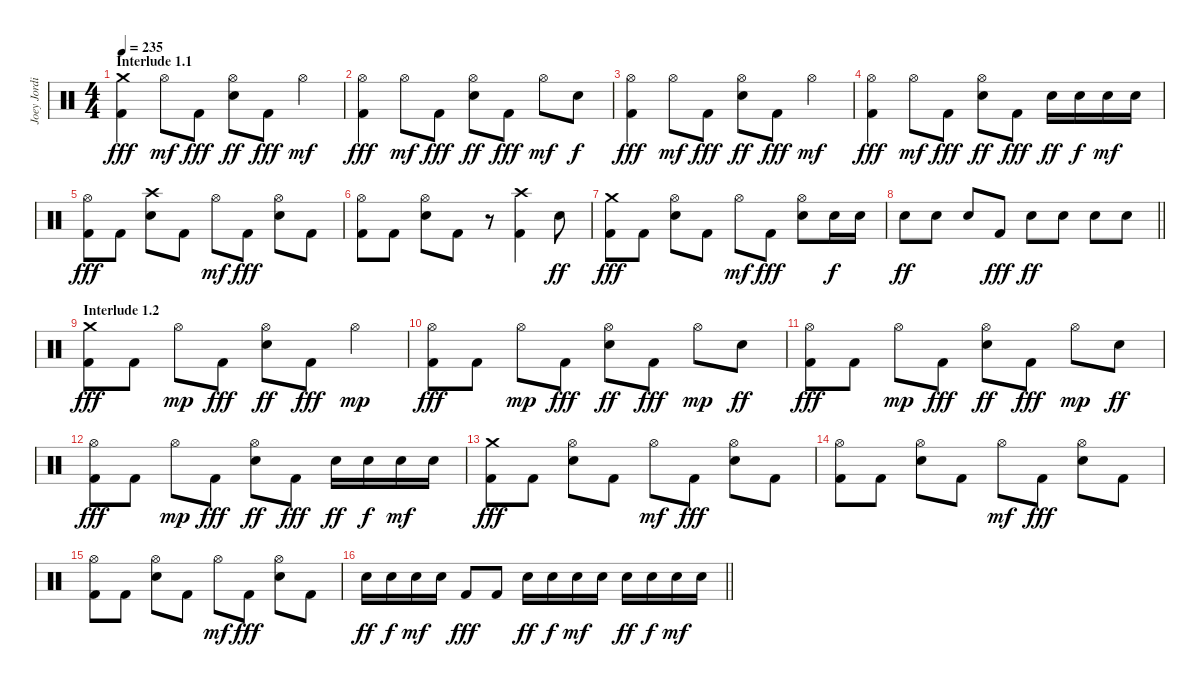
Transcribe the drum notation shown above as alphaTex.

\track ("Joey Jordison" "Joey Jordi") {instrument percussion}
\staff {score}
\articulation defaults
\ts (4 4)
\section ("" "Interlude 1.1")
\tempo 235
\clef neutral
\ks c
("Crash medium (hit)" "Kick (hit) 2").4{dy fff} "Hi-Hat (open)".8{dy mf} "Kick (hit) 2".8{dy fff} ("Hi-Hat (open)" "Electric Snare (hit)").8{dy ff} "Kick (hit) 2".8{dy fff} "Hi-Hat (open)".4{dy mf} |
("Hi-Hat (open)" "Kick (hit) 2").4{dy fff} "Hi-Hat (open)".8{dy mf} "Kick (hit) 2".8{dy fff} ("Hi-Hat (open)" "Electric Snare (hit)").8{dy ff} "Kick (hit) 2".8{dy fff} "Hi-Hat (open)".8{dy mf} "Electric Snare (hit)".8{dy f} |
("Hi-Hat (open)" "Kick (hit) 2").4{dy fff} "Hi-Hat (open)".8{dy mf} "Kick (hit) 2".8{dy fff} ("Hi-Hat (open)" "Electric Snare (hit)").8{dy ff} "Kick (hit) 2".8{dy fff} "Hi-Hat (open)".4{dy mf} |
("Hi-Hat (open)" "Kick (hit) 2").4{dy fff} "Hi-Hat (open)".8{dy mf} "Kick (hit) 2".8{dy fff} ("Hi-Hat (open)" "Electric Snare (hit)").8{dy ff} "Kick (hit) 2".8{dy fff} "Electric Snare (hit)".16{dy ff} "Electric Snare (hit)".16{dy f} "Electric Snare (hit)".16{dy mf} "Electric Snare (hit)".16 |
("Hi-Hat (open)" "Kick (hit) 2").8{dy fff} "Kick (hit) 2".8 ("Crash high (hit)" "Electric Snare (hit)").8 "Kick (hit) 2".8 "Hi-Hat (open)".8{dy mf} "Kick (hit) 2".8{dy fff} ("Hi-Hat (open)" "Electric Snare (hit)").8 "Kick (hit) 2".8 |
("Hi-Hat (open)" "Kick (hit) 2").8 "Kick (hit) 2".8 ("Hi-Hat (open)" "Electric Snare (hit)").8 "Kick (hit) 2".8 r.8 ("Crash high (hit)" "Kick (hit) 2").4 "Electric Snare (hit)".8{dy ff} |
("Crash medium (hit)" "Kick (hit) 2").8{dy fff} "Kick (hit) 2".8 ("Hi-Hat (open)" "Electric Snare (hit)").8 "Kick (hit) 2".8 "Hi-Hat (open)".8{dy mf} "Kick (hit) 2".8{dy fff} ("Hi-Hat (open)" "Electric Snare (hit)").8 "Electric Snare (hit)".16{dy f} "Electric Snare (hit)".16 |
\barLineRight lightlight "Electric Snare (hit)".8{dy ff} "Electric Snare (hit)".8 "Electric Snare (hit)".8 "Kick (hit) 2".8{dy fff} "Electric Snare (hit)".8{dy ff} "Electric Snare (hit)".8 "Electric Snare (hit)".8 "Electric Snare (hit)".8
|
\section ("" "Interlude 1.2")
("Crash medium (hit)" "Kick (hit) 2").8{dy fff} "Kick (hit) 2".8 "Hi-Hat (open)".8{dy mp} "Kick (hit) 2".8{dy fff} ("Hi-Hat (open)" "Electric Snare (hit)").8{dy ff} "Kick (hit) 2".8{dy fff} "Hi-Hat (open)".4{dy mp} |
("Hi-Hat (open)" "Kick (hit) 2").8{dy fff} "Kick (hit) 2".8 "Hi-Hat (open)".8{dy mp} "Kick (hit) 2".8{dy fff} ("Hi-Hat (open)" "Electric Snare (hit)").8{dy ff} "Kick (hit) 2".8{dy fff} "Hi-Hat (open)".8{dy mp} "Electric Snare (hit)".8{dy ff} |
("Hi-Hat (open)" "Kick (hit) 2").8{dy fff} "Kick (hit) 2".8 "Hi-Hat (open)".8{dy mp} "Kick (hit) 2".8{dy fff} ("Hi-Hat (open)" "Electric Snare (hit)").8{dy ff} "Kick (hit) 2".8{dy fff} "Hi-Hat (open)".8{dy mp} "Electric Snare (hit)".8{dy ff} |
("Hi-Hat (open)" "Kick (hit) 2").8{dy fff} "Kick (hit) 2".8 "Hi-Hat (open)".8{dy mp} "Kick (hit) 2".8{dy fff} ("Hi-Hat (open)" "Electric Snare (hit)").8{dy ff} "Kick (hit) 2".8{dy fff} "Electric Snare (hit)".16{dy ff} "Electric Snare (hit)".16{dy f} "Electric Snare (hit)".16{dy mf} "Electric Snare (hit)".16 |
("Crash medium (hit)" "Kick (hit) 2").8{dy fff} "Kick (hit) 2".8 ("Hi-Hat (open)" "Electric Snare (hit)").8 "Kick (hit) 2".8 "Hi-Hat (open)".8{dy mf} "Kick (hit) 2".8{dy fff} ("Hi-Hat (open)" "Electric Snare (hit)").8 "Kick (hit) 2".8 |
("Hi-Hat (open)" "Kick (hit) 2").8 "Kick (hit) 2".8 ("Hi-Hat (open)" "Electric Snare (hit)").8 "Kick (hit) 2".8 "Hi-Hat (open)".8{dy mf} "Kick (hit) 2".8{dy fff} ("Hi-Hat (open)" "Electric Snare (hit)").8 "Kick (hit) 2".8 |
("Hi-Hat (open)" "Kick (hit) 2").8 "Kick (hit) 2".8 ("Hi-Hat (open)" "Electric Snare (hit)").8 "Kick (hit) 2".8 "Hi-Hat (open)".8{dy mf} "Kick (hit) 2".8{dy fff} ("Hi-Hat (open)" "Electric Snare (hit)").8 "Kick (hit) 2".8 |
\barLineRight lightlight "Electric Snare (hit)".16{dy ff} "Electric Snare (hit)".16{dy f} "Electric Snare (hit)".16{dy mf} "Electric Snare (hit)".16 "Kick (hit) 2".8{dy fff} "Kick (hit) 2".8 "Electric Snare (hit)".16{dy ff} "Electric Snare (hit)".16{dy f} "Electric Snare (hit)".16{dy mf} "Electric Snare (hit)".16 "Electric Snare (hit)".16{dy ff} "Electric Snare (hit)".16{dy f} "Electric Snare (hit)".16{dy mf} "Electric Snare (hit)".16
